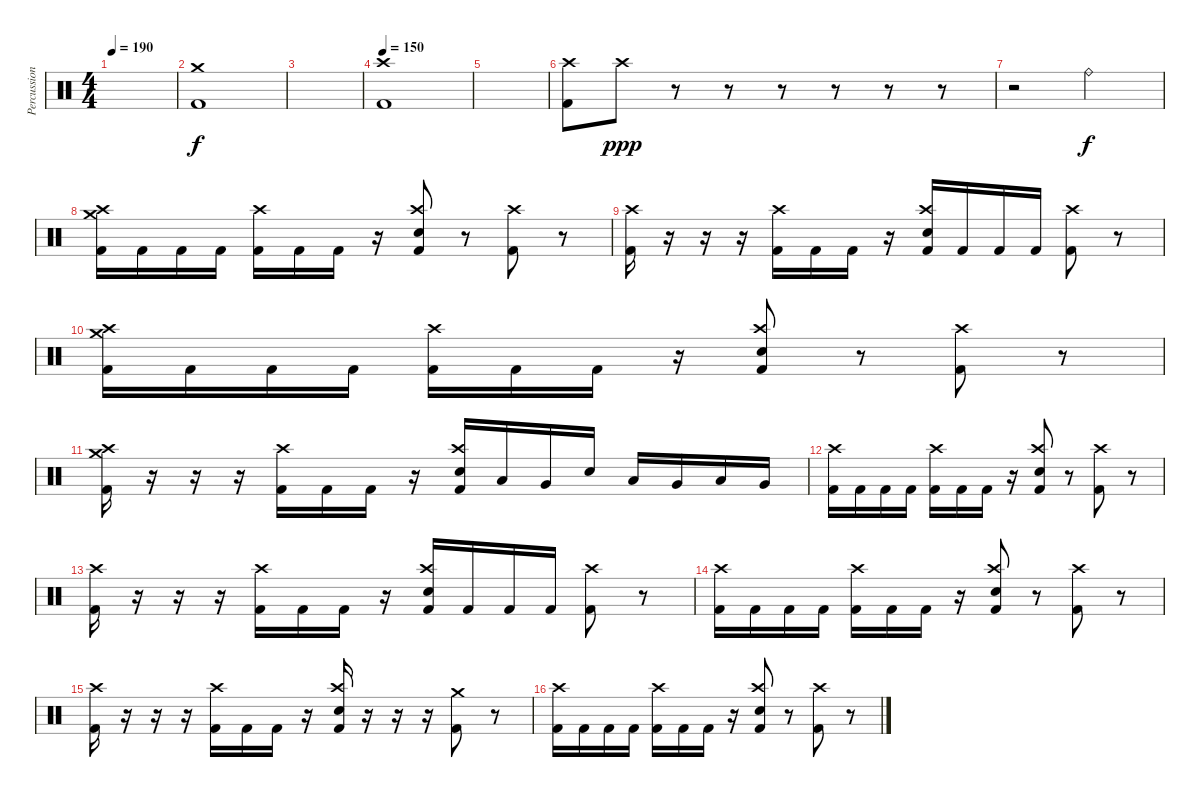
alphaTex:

\track ("Percussion" "Percussion") {instrument percussion}
\staff {score}
\articulation defaults
\ts (4 4)
\tempo 190
\clef neutral
\ks c
|
("Crash medium (hit)" "Kick (hit) 2").1 |
|
\tempo 150
("Crash high (hit)" "Kick (hit) 2").1 |
|
("Crash high (hit)" "Kick (hit) 2").8 "Crash high (hit)".8{dy ppp} r.8 r.8 r.8 r.8 r.8 r.8 |
r.2 "Ride (bell)".2{dy f} |
("Crash medium (hit)" "Crash high (hit)" "Kick (hit) 2").16 "Kick (hit) 2".16 "Kick (hit) 2".16 "Kick (hit) 2".16 ("Crash high (hit)" "Kick (hit) 2").16 "Kick (hit) 2".16 "Kick (hit) 2".16 r.16 ("Crash high (hit)" "Electric Snare (hit)" "Kick (hit) 2").8 r.8 ("Crash high (hit)" "Kick (hit) 2").8 r.8 |
("Crash high (hit)" "Kick (hit) 2").16 r.16 r.16 r.16 ("Crash high (hit)" "Kick (hit) 2").16 "Kick (hit) 2".16 "Kick (hit) 2".16 r.16 ("Crash high (hit)" "Electric Snare (hit)" "Kick (hit) 2").16 "Kick (hit) 2".16 "Kick (hit) 2".16 "Kick (hit) 2".16 ("Crash high (hit)" "Kick (hit) 2").8 r.8 |
("Crash medium (hit)" "Crash high (hit)" "Kick (hit) 2").16 "Kick (hit) 2".16 "Kick (hit) 2".16 "Kick (hit) 2".16 ("Crash high (hit)" "Kick (hit) 2").16 "Kick (hit) 2".16 "Kick (hit) 2".16 r.16 ("Crash high (hit)" "Electric Snare (hit)" "Kick (hit) 2").8 r.8 ("Crash high (hit)" "Kick (hit) 2").8 r.8 |
("Crash medium (hit)" "Crash high (hit)" "Kick (hit) 2").16 r.16 r.16 r.16 ("Crash high (hit)" "Kick (hit) 2").16 "Kick (hit) 2".16 "Kick (hit) 2".16 r.16 ("Crash high (hit)" "Electric Snare (hit)" "Kick (hit) 2").16 "Low Tom (hit)".16 "Very Low Tom (hit)".16 "Electric Snare (hit)".16 "Low Tom (hit)".16 "Very Low Tom (hit)".16 "Low Floor Tom (hit)".16 "Very Low Tom (hit)".16 |
("Crash high (hit)" "Kick (hit) 2").16 "Kick (hit) 2".16 "Kick (hit) 2".16 "Kick (hit) 2".16 ("Crash high (hit)" "Kick (hit) 2").16 "Kick (hit) 2".16 "Kick (hit) 2".16 r.16 ("Crash high (hit)" "Electric Snare (hit)" "Kick (hit) 2").8 r.8 ("Crash high (hit)" "Kick (hit) 2").8 r.8 |
("Crash high (hit)" "Kick (hit) 2").16 r.16 r.16 r.16 ("Crash high (hit)" "Kick (hit) 2").16 "Kick (hit) 2".16 "Kick (hit) 2".16 r.16 ("Crash high (hit)" "Electric Snare (hit)" "Kick (hit) 2").16 "Kick (hit) 2".16 "Kick (hit) 2".16 "Kick (hit) 2".16 ("Crash high (hit)" "Kick (hit) 2").8 r.8 |
("Crash high (hit)" "Kick (hit) 2").16 "Kick (hit) 2".16 "Kick (hit) 2".16 "Kick (hit) 2".16 ("Crash high (hit)" "Kick (hit) 2").16 "Kick (hit) 2".16 "Kick (hit) 2".16 r.16 ("Crash high (hit)" "Electric Snare (hit)" "Kick (hit) 2").8 r.8 ("Crash high (hit)" "Kick (hit) 2").8 r.8 |
("Crash high (hit)" "Kick (hit) 2").16 r.16 r.16 r.16 ("Crash high (hit)" "Kick (hit) 2").16 "Kick (hit) 2".16 "Kick (hit) 2".16 r.16 ("Crash high (hit)" "Electric Snare (hit)" "Kick (hit) 2").16 r.16 r.16 r.16 ("Crash medium (hit)" "Kick (hit) 2").8 r.8 |
("Crash high (hit)" "Kick (hit) 2").16 "Kick (hit) 2".16 "Kick (hit) 2".16 "Kick (hit) 2".16 ("Crash high (hit)" "Kick (hit) 2").16 "Kick (hit) 2".16 "Kick (hit) 2".16 r.16 ("Crash high (hit)" "Electric Snare (hit)" "Kick (hit) 2").8 r.8 ("Crash high (hit)" "Kick (hit) 2").8 r.8
